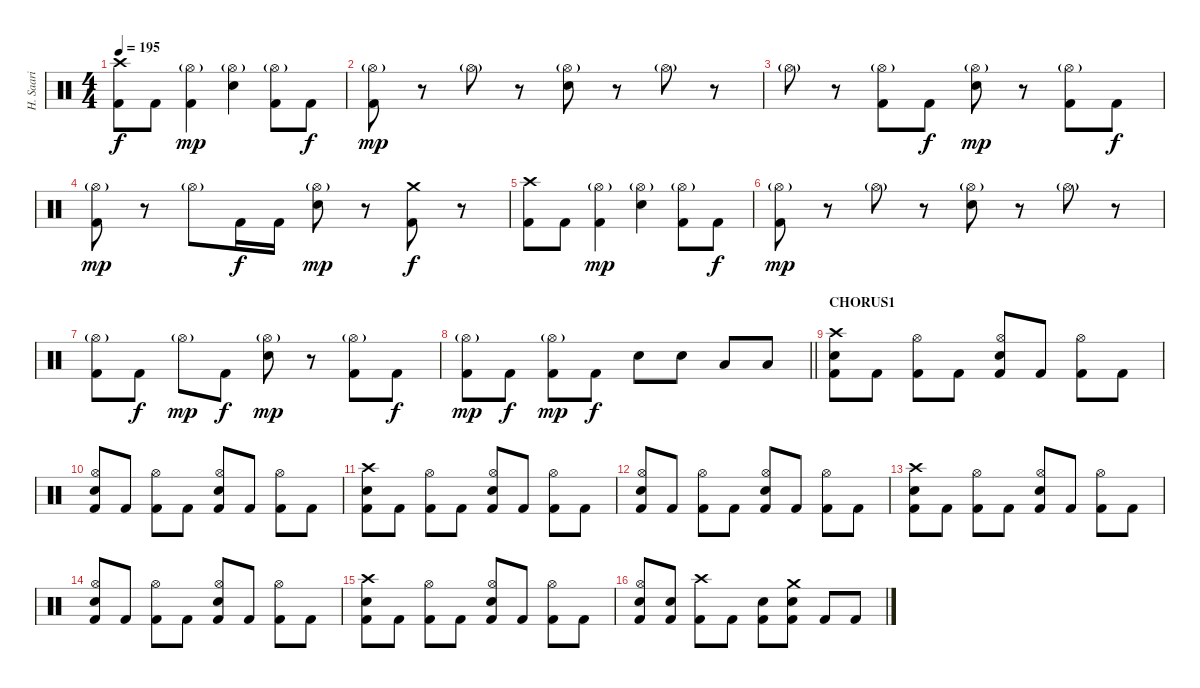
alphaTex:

\track ("H. Saari" "H. Saari") {instrument percussion}
\staff {score}
\articulation defaults
\ts (4 4)
\tempo 195
\clef neutral
\ks c
("Crash high (hit)" "Kick (hit) 2").8{dy f} "Kick (hit) 2".8 ("Hi-Hat (open)"{g} "Kick (hit) 2").4{dy mp} ("Hi-Hat (open)"{g} "Electric Snare (hit)").4 ("Hi-Hat (open)"{g} "Kick (hit) 2").8 "Kick (hit) 2".8{dy f} |
("Hi-Hat (open)"{g} "Kick (hit) 2").8{dy mp} r.8 "Hi-Hat (open)"{g}.8 r.8 ("Hi-Hat (open)"{g} "Electric Snare (hit)").8 r.8 "Hi-Hat (open)"{g}.8 r.8 |
"Hi-Hat (open)"{g}.8 r.8 ("Hi-Hat (open)"{g} "Kick (hit) 2").8 "Kick (hit) 2".8{dy f} ("Hi-Hat (open)"{g} "Electric Snare (hit)").8{dy mp} r.8 ("Hi-Hat (open)"{g} "Kick (hit) 2").8 "Kick (hit) 2".8{dy f} |
("Hi-Hat (open)"{g} "Kick (hit) 2").8{dy mp} r.8 "Hi-Hat (open)"{g}.8 "Kick (hit) 2".16{dy f} "Kick (hit) 2".16 ("Hi-Hat (open)"{g} "Electric Snare (hit)").8{dy mp} r.8 ("Crash medium (hit)" "Kick (hit) 2").8{dy f} r.8 |
("Crash high (hit)" "Kick (hit) 2").8 "Kick (hit) 2".8 ("Hi-Hat (open)"{g} "Kick (hit) 2").4{dy mp} ("Hi-Hat (open)"{g} "Electric Snare (hit)").4 ("Hi-Hat (open)"{g} "Kick (hit) 2").8 "Kick (hit) 2".8{dy f} |
("Hi-Hat (open)"{g} "Kick (hit) 2").8{dy mp} r.8 "Hi-Hat (open)"{g}.8 r.8 ("Hi-Hat (open)"{g} "Electric Snare (hit)").8 r.8 "Hi-Hat (open)"{g}.8 r.8 |
("Hi-Hat (open)"{g} "Kick (hit) 2").8 "Kick (hit) 2".8{dy f} "Hi-Hat (open)"{g}.8{dy mp} "Kick (hit) 2".8{dy f} ("Hi-Hat (open)"{g} "Electric Snare (hit)").8{dy mp} r.8 ("Hi-Hat (open)"{g} "Kick (hit) 2").8 "Kick (hit) 2".8{dy f} |
\barLineRight lightlight
("Hi-Hat (open)"{g} "Kick (hit) 2").8{dy mp} "Kick (hit) 2".8{dy f} ("Hi-Hat (open)"{g} "Kick (hit) 2").8{dy mp} "Kick (hit) 2".8{dy f} "Electric Snare (hit)".8 "Electric Snare (hit)".8 "Low Tom (hit)".8 "Low Tom (hit)".8 |
\section ("" "CHORUS1")
("Crash high (hit)" "Electric Snare (hit)" "Kick (hit) 2").8 "Kick (hit) 2".8 ("Hi-Hat (open)" "Kick (hit) 2").8 "Kick (hit) 2".8 ("Hi-Hat (open)" "Electric Snare (hit)" "Kick (hit) 2").8 "Kick (hit) 2".8 ("Hi-Hat (open)" "Kick (hit) 2").8 "Kick (hit) 2".8 |
("Hi-Hat (open)" "Electric Snare (hit)" "Kick (hit) 2").8 "Kick (hit) 2".8 ("Hi-Hat (open)" "Kick (hit) 2").8 "Kick (hit) 2".8 ("Hi-Hat (open)" "Electric Snare (hit)" "Kick (hit) 2").8 "Kick (hit) 2".8 ("Hi-Hat (open)" "Kick (hit) 2").8 "Kick (hit) 2".8 |
("Crash high (hit)" "Electric Snare (hit)" "Kick (hit) 2").8 "Kick (hit) 2".8 ("Hi-Hat (open)" "Kick (hit) 2").8 "Kick (hit) 2".8 ("Hi-Hat (open)" "Electric Snare (hit)" "Kick (hit) 2").8 "Kick (hit) 2".8 ("Hi-Hat (open)" "Kick (hit) 2").8 "Kick (hit) 2".8 |
("Hi-Hat (open)" "Electric Snare (hit)" "Kick (hit) 2").8 "Kick (hit) 2".8 ("Hi-Hat (open)" "Kick (hit) 2").8 "Kick (hit) 2".8 ("Hi-Hat (open)" "Electric Snare (hit)" "Kick (hit) 2").8 "Kick (hit) 2".8 ("Hi-Hat (open)" "Kick (hit) 2").8 "Kick (hit) 2".8 |
("Crash high (hit)" "Electric Snare (hit)" "Kick (hit) 2").8 "Kick (hit) 2".8 ("Hi-Hat (open)" "Kick (hit) 2").8 "Kick (hit) 2".8 ("Hi-Hat (open)" "Electric Snare (hit)" "Kick (hit) 2").8 "Kick (hit) 2".8 ("Hi-Hat (open)" "Kick (hit) 2").8 "Kick (hit) 2".8 |
("Hi-Hat (open)" "Electric Snare (hit)" "Kick (hit) 2").8 "Kick (hit) 2".8 ("Hi-Hat (open)" "Kick (hit) 2").8 "Kick (hit) 2".8 ("Hi-Hat (open)" "Electric Snare (hit)" "Kick (hit) 2").8 "Kick (hit) 2".8 ("Hi-Hat (open)" "Kick (hit) 2").8 "Kick (hit) 2".8 |
("Crash high (hit)" "Electric Snare (hit)" "Kick (hit) 2").8 "Kick (hit) 2".8 ("Hi-Hat (open)" "Kick (hit) 2").8 "Kick (hit) 2".8 ("Hi-Hat (open)" "Electric Snare (hit)" "Kick (hit) 2").8 "Kick (hit) 2".8 ("Hi-Hat (open)" "Kick (hit) 2").8 "Kick (hit) 2".8 |
("Hi-Hat (open)" "Electric Snare (hit)" "Kick (hit) 2").8 ("Electric Snare (hit)" "Kick (hit) 2").8 ("Crash high (hit)" "Kick (hit) 2").8 "Kick (hit) 2".8 ("Electric Snare (hit)" "Kick (hit) 2").8 ("Crash medium (hit)" "Electric Snare (hit)" "Kick (hit) 2").8 "Kick (hit) 2".8 "Kick (hit) 2".8
